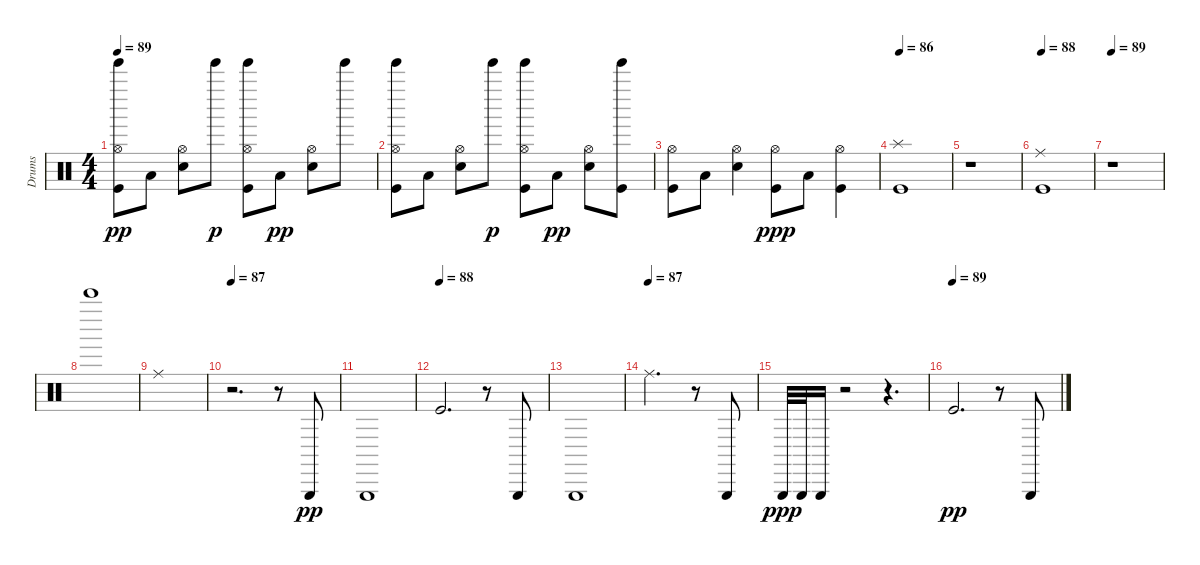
\track ("Drums" "Drums") {instrument percussion}
\staff {score}
\articulation defaults
\ts (4 4)
\tempo 89
\clef neutral
\ks c
("Kick (hit)" "Hi-Hat (open)" "Tinkle Bell (hit)").8{dy pp} "Low Tom (hit)".8 ("Snare (hit) 2" "Hi-Hat (open)").8 "Tinkle Bell (hit)".8{dy p} ("Kick (hit)" "Hi-Hat (open)" "Tinkle Bell (hit)").8 "Low Tom (hit)".8{dy pp} ("Snare (hit) 2" "Hi-Hat (open)").8 "Tinkle Bell (hit)".8 |
("Kick (hit)" "Hi-Hat (open)" "Tinkle Bell (hit)").8 "Low Tom (hit)".8 ("Snare (hit) 2" "Hi-Hat (open)").8 "Tinkle Bell (hit)".8{dy p} ("Kick (hit)" "Hi-Hat (open)" "Tinkle Bell (hit)").8 "Low Tom (hit)".8{dy pp} ("Snare (hit) 2" "Hi-Hat (open)").8 ("Kick (hit)" "Tinkle Bell (hit)").8 |
("Kick (hit)" "Hi-Hat (open)").8 "Low Tom (hit)".8 ("Snare (hit) 2" "Hi-Hat (open)").4 ("Kick (hit)" "Hi-Hat (open)").8{dy ppp} "Low Tom (hit)".8 ("Kick (hit)" "Hi-Hat (open)").4 |
\tempo 86
("Kick (hit)" "Splash (hit)").1 |
r.1 |
\tempo 88
("Kick (hit)" "Ride (middle)").1 |
\tempo 89
r.1 |
"Bell Tree (hit)".1 |
"Ride (middle)".1 |
\tempo 87
r.2{d} r.8 "Triangle (hit)".8{dy pp} |
"Triangle (hit)".1 |
\tempo (88)
"Kick (hit)".2{d} r.8 "Triangle (hit)".8 |
"Triangle (hit)".1 |
\tempo (87)
"Ride (middle)".2{d} r.8 "Triangle (hit)".8 |
"Triangle (hit)".32{dy ppp} "Triangle (hit)".32 "Triangle (hit)".16 r.2 r.4{d} |
\tempo (89)
"Kick (hit)".2{d dy pp} r.8 "Triangle (hit)".8
